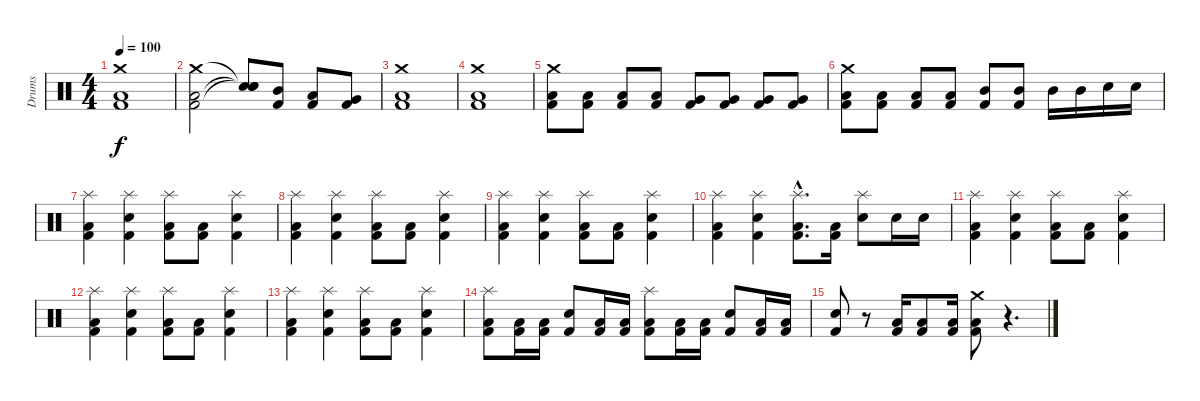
\track ("Drums" "Drums") {instrument percussion}
\staff {score}
\articulation defaults
\ts (4 4)
\tempo 100
\clef neutral
\ks c
("Crash medium (hit)" "Low Floor Tom (hit)" "Kick (hit) 2").1{dy f} |
("Crash medium (hit)" "Low Floor Tom (hit)" "Kick (hit) 2").2 ("Snare (hit)"{t} "Snare (hit)"{t} "Snare (hit)"{t}).8 ("Mid Tom (hit)" "Kick (hit) 2").8 ("Low Tom (hit)" "Kick (hit) 2").8 ("Very Low Tom (hit)" "Kick (hit) 2").8 |
("Crash medium (hit)" "Low Floor Tom (hit)" "Kick (hit) 2").1 |
("Crash medium (hit)" "Low Floor Tom (hit)" "Kick (hit) 2").1 |
("Crash medium (hit)" "Low Floor Tom (hit)" "Kick (hit) 2").8 ("Low Floor Tom (hit)" "Kick (hit) 2").8 ("Low Floor Tom (hit)" "Kick (hit) 2").8 ("Low Floor Tom (hit)" "Kick (hit) 2").8 ("Very Low Tom (hit)" "Kick (hit) 2").8 ("Very Low Tom (hit)" "Kick (hit) 2").8 ("Very Low Tom (hit)" "Kick (hit) 2").8 ("Very Low Tom (hit)" "Kick (hit) 2").8 |
("Crash medium (hit)" "Low Tom (hit)" "Kick (hit) 2").8 ("Low Tom (hit)" "Kick (hit) 2").8 ("Low Tom (hit)" "Kick (hit) 2").8 ("Low Tom (hit)" "Kick (hit) 2").8 ("Mid Tom (hit)" "Kick (hit) 2").8 ("Mid Tom (hit)" "Kick (hit) 2").8 "Mid Tom (hit)".16 "Mid Tom (hit)".16 "Snare (hit) 2".16 "Snare (hit) 2".16 |
("Splash (hit)" "Low Floor Tom (hit)" "Kick (hit) 2").4 ("Splash (hit)" "Snare (hit) 2" "Kick (hit) 2").4 ("Splash (hit)" "Low Floor Tom (hit)" "Kick (hit) 2").8 ("Low Floor Tom (hit)" "Kick (hit) 2").8 ("Splash (hit)" "Snare (hit) 2" "Kick (hit) 2").4 |
("Splash (hit)" "Low Floor Tom (hit)" "Kick (hit) 2").4 ("Splash (hit)" "Snare (hit) 2" "Kick (hit) 2").4 ("Splash (hit)" "Low Floor Tom (hit)" "Kick (hit) 2").8 ("Low Floor Tom (hit)" "Kick (hit) 2").8 ("Splash (hit)" "Snare (hit) 2" "Kick (hit) 2").4 |
("Splash (hit)" "Low Floor Tom (hit)" "Kick (hit) 2").4 ("Splash (hit)" "Snare (hit) 2" "Kick (hit) 2").4 ("Splash (hit)" "Low Floor Tom (hit)" "Kick (hit) 2").8 ("Low Floor Tom (hit)" "Kick (hit) 2").8 ("Splash (hit)" "Snare (hit) 2" "Kick (hit) 2").4 |
("Splash (hit)" "Low Floor Tom (hit)" "Kick (hit) 2").4 ("Splash (hit)" "Snare (hit) 2" "Kick (hit) 2").4 ("Splash (hit)"{hac} "Low Floor Tom (hit)"{hac} "Kick (hit) 2"{hac}).8{d} ("Low Floor Tom (hit)" "Kick (hit) 2").16 ("Splash (hit)" "Snare (hit) 2").8 "Snare (hit) 2".16 "Snare (hit) 2".16 |
("Splash (hit)" "Low Floor Tom (hit)" "Kick (hit) 2").4 ("Splash (hit)" "Snare (hit) 2" "Kick (hit) 2").4 ("Splash (hit)" "Low Floor Tom (hit)" "Kick (hit) 2").8 ("Low Floor Tom (hit)" "Kick (hit) 2").8 ("Splash (hit)" "Snare (hit) 2" "Kick (hit) 2").4 |
("Splash (hit)" "Low Floor Tom (hit)" "Kick (hit) 2").4 ("Splash (hit)" "Snare (hit) 2" "Kick (hit) 2").4 ("Splash (hit)" "Low Floor Tom (hit)" "Kick (hit) 2").8 ("Low Floor Tom (hit)" "Kick (hit) 2").8 ("Splash (hit)" "Snare (hit) 2" "Kick (hit) 2").4 |
("Splash (hit)" "Low Floor Tom (hit)" "Kick (hit) 2").4 ("Splash (hit)" "Snare (hit) 2" "Kick (hit) 2").4 ("Splash (hit)" "Low Floor Tom (hit)" "Kick (hit) 2").8 ("Low Floor Tom (hit)" "Kick (hit) 2").8 ("Splash (hit)" "Snare (hit) 2" "Kick (hit) 2").4 |
("Splash (hit)" "Low Floor Tom (hit)" "Kick (hit) 2").8 ("Low Floor Tom (hit)" "Kick (hit) 2").16 ("Low Floor Tom (hit)" "Kick (hit) 2").16 ("Snare (hit) 2" "Kick (hit) 2").8 ("Low Floor Tom (hit)" "Kick (hit) 2").16 ("Low Floor Tom (hit)" "Kick (hit) 2").16 ("Splash (hit)" "Low Floor Tom (hit)" "Kick (hit) 2").8 ("Low Floor Tom (hit)" "Kick (hit) 2").16 ("Low Floor Tom (hit)" "Kick (hit) 2").16 ("Snare (hit) 2" "Kick (hit) 2").8 ("Low Floor Tom (hit)" "Kick (hit) 2").16 ("Low Floor Tom (hit)" "Kick (hit) 2").16 |
("Snare (hit) 2" "Kick (hit) 2").8 r.8 ("Low Floor Tom (hit)" "Kick (hit) 2").16 ("Low Floor Tom (hit)" "Kick (hit) 2").8 ("Low Floor Tom (hit)" "Kick (hit) 2").16 ("Crash medium (hit)" "Low Floor Tom (hit)" "Kick (hit) 2").8 r.4{d}
